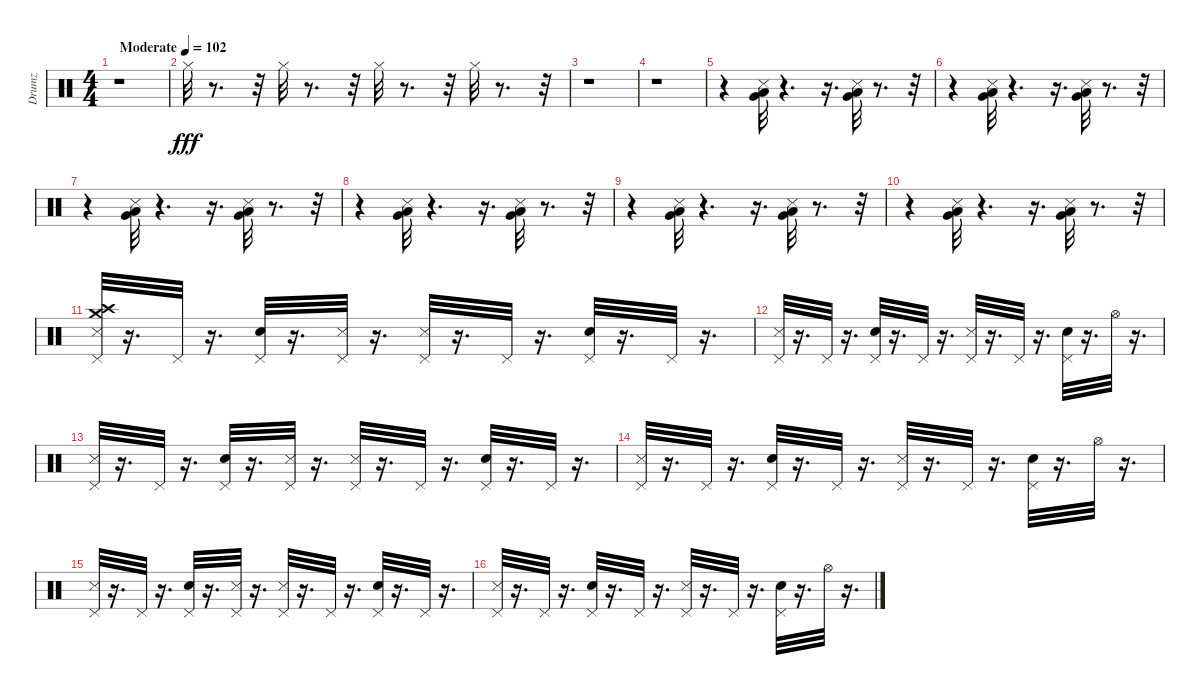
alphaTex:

\track ("Drumz" "Drumz") {instrument percussion}
\staff {score}
\articulation defaults
\ts (4 4)
\tempo (102 "Moderate")
\clef neutral
\ks c
r.1{dy fff} |
"Hi-Hat (closed)".32 r.8{d} r.32 "Hi-Hat (closed)".32 r.8{d} r.32 "Hi-Hat (closed)".32 r.8{d} r.32 "Hi-Hat (closed)".32 r.8{d} r.32 |
r.1 |
r.1 |
r.4 ("Low Floor Tom (hit)" "Very Low Tom (hit)" "Metronome (hit)").32 r.4{d} r.16{d} ("Metronome (hit)" "Very Low Tom (hit)" "Low Floor Tom (hit)").32 r.8{d} r.32 |
r.4 ("Metronome (hit)" "Low Floor Tom (hit)" "Very Low Tom (hit)").32 r.4{d} r.16{d} ("Very Low Tom (hit)" "Metronome (hit)" "Low Floor Tom (hit)").32 r.8{d} r.32 |
r.4 ("Very Low Tom (hit)" "Low Floor Tom (hit)" "Metronome (hit)").32 r.4{d} r.16{d} ("Metronome (hit)" "Very Low Tom (hit)" "Low Floor Tom (hit)").32 r.8{d} r.32 |
r.4 ("Metronome (hit)" "Low Floor Tom (hit)" "Very Low Tom (hit)").32 r.4{d} r.16{d} ("Metronome (hit)" "Low Floor Tom (hit)" "Very Low Tom (hit)").32 r.8{d} r.32 |
r.4 ("Low Floor Tom (hit)" "Very Low Tom (hit)" "Metronome (hit)").32 r.4{d} r.16{d} ("Low Floor Tom (hit)" "Metronome (hit)" "Very Low Tom (hit)").32 r.8{d} r.32 |
r.4 ("Very Low Tom (hit)" "Low Floor Tom (hit)" "Metronome (hit)").32 r.4{d} r.16{d} ("Very Low Tom (hit)" "Low Floor Tom (hit)" "Metronome (hit)").32 r.8{d} r.32 |
("Metronome (hit)" "Crash medium (hit)" "Crash high (hit)" "Pedal Hi-Hat (hit)").32{volume 16 balance 8} r.16{d} "Pedal Hi-Hat (hit)".32 r.16{d} ("Snare (hit) 2" "Pedal Hi-Hat (hit)").32 r.16{d} ("Pedal Hi-Hat (hit)" "Metronome (hit)").32 r.16{d} ("Pedal Hi-Hat (hit)" "Metronome (hit)").32 r.16{d} "Pedal Hi-Hat (hit)".32 r.16{d} ("Snare (hit) 2" "Pedal Hi-Hat (hit)").32 r.16{d} "Pedal Hi-Hat (hit)".32 r.16{d} |
("Pedal Hi-Hat (hit)" "Metronome (hit)").32 r.16{d} "Pedal Hi-Hat (hit)".32 r.16{d} ("Pedal Hi-Hat (hit)" "Snare (hit) 2").32 r.16{d} "Pedal Hi-Hat (hit)".32 r.16{d} ("Metronome (hit)" "Pedal Hi-Hat (hit)").32 r.16{d} "Pedal Hi-Hat (hit)".32 r.16{d} ("Snare (hit) 2" "Pedal Hi-Hat (hit)").32 r.16{d} "Hi-Hat (open)".32 r.16{d} |
("Pedal Hi-Hat (hit)" "Metronome (hit)").32 r.16{d} "Pedal Hi-Hat (hit)".32 r.16{d} ("Pedal Hi-Hat (hit)" "Snare (hit) 2").32 r.16{d} ("Pedal Hi-Hat (hit)" "Metronome (hit)").32 r.16{d} ("Pedal Hi-Hat (hit)" "Metronome (hit)").32 r.16{d} "Pedal Hi-Hat (hit)".32 r.16{d} ("Snare (hit) 2" "Pedal Hi-Hat (hit)").32 r.16{d} "Pedal Hi-Hat (hit)".32 r.16{d} |
("Metronome (hit)" "Pedal Hi-Hat (hit)").32 r.16{d} "Pedal Hi-Hat (hit)".32 r.16{d} ("Pedal Hi-Hat (hit)" "Snare (hit) 2").32 r.16{d} "Pedal Hi-Hat (hit)".32 r.16{d} ("Pedal Hi-Hat (hit)" "Metronome (hit)").32 r.16{d} "Pedal Hi-Hat (hit)".32 r.16{d} ("Snare (hit) 2" "Pedal Hi-Hat (hit)").32 r.16{d} "Hi-Hat (open)".32 r.16{d} |
("Pedal Hi-Hat (hit)" "Metronome (hit)").32 r.16{d} "Pedal Hi-Hat (hit)".32 r.16{d} ("Pedal Hi-Hat (hit)" "Snare (hit) 2").32 r.16{d} ("Metronome (hit)" "Pedal Hi-Hat (hit)").32 r.16{d} ("Metronome (hit)" "Pedal Hi-Hat (hit)").32 r.16{d} "Pedal Hi-Hat (hit)".32 r.16{d} ("Pedal Hi-Hat (hit)" "Snare (hit) 2").32 r.16{d} "Pedal Hi-Hat (hit)".32 r.16{d} |
("Pedal Hi-Hat (hit)" "Metronome (hit)").32 r.16{d} "Pedal Hi-Hat (hit)".32 r.16{d} ("Snare (hit) 2" "Pedal Hi-Hat (hit)").32 r.16{d} "Pedal Hi-Hat (hit)".32 r.16{d} ("Metronome (hit)" "Pedal Hi-Hat (hit)").32 r.16{d} "Pedal Hi-Hat (hit)".32 r.16{d} ("Snare (hit) 2" "Pedal Hi-Hat (hit)").32 r.16{d} "Hi-Hat (open)".32 r.16{d}
